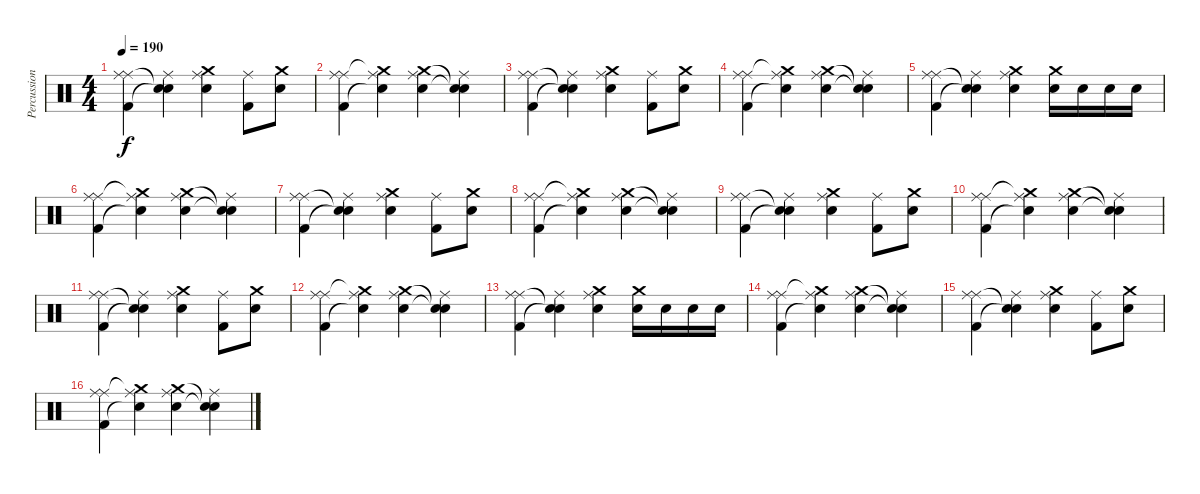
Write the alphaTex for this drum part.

\track ("Percussions" "Percussion") {instrument percussion}
\staff {score}
\articulation defaults
\ts (4 4)
\tempo 190
\clef neutral
\ks c
("Ride (middle)" "Ride (middle)" "Kick (hit) 2").4{dy f} ("Ride (middle)" "Snare (hit)"{t} "Snare (hit)"{t}).4 ("Ride (middle)" "Crash medium (hit)" "Electric Snare (hit)").4 ("Ride (middle)" "Kick (hit) 2").8 ("Crash medium (hit)" "Electric Snare (hit)").8 |
("Ride (middle)" "Ride (middle)" "Kick (hit) 2").4 ("Ride (middle)" "Crash medium (hit)"{t} "Electric Snare (hit)"{t}).4 ("Ride (middle)" "Crash medium (hit)" "Electric Snare (hit)").4 ("Ride (middle)" "Snare (hit)"{t} "Snare (hit)"{t}).4 |
("Ride (middle)" "Ride (middle)" "Kick (hit) 2").4 ("Ride (middle)" "Snare (hit)"{t} "Snare (hit)"{t}).4 ("Ride (middle)" "Crash medium (hit)" "Electric Snare (hit)").4 ("Ride (middle)" "Kick (hit) 2").8 ("Crash medium (hit)" "Electric Snare (hit)").8 |
("Ride (middle)" "Ride (middle)" "Kick (hit) 2").4 ("Ride (middle)" "Crash medium (hit)"{t} "Electric Snare (hit)"{t}).4 ("Ride (middle)" "Crash medium (hit)" "Electric Snare (hit)").4 ("Ride (middle)" "Snare (hit)"{t} "Snare (hit)"{t}).4 |
("Ride (middle)" "Ride (middle)" "Kick (hit) 2").4 ("Ride (middle)" "Snare (hit)"{t} "Snare (hit)"{t}).4 ("Ride (middle)" "Crash medium (hit)" "Electric Snare (hit)").4 ("Crash medium (hit)" "Electric Snare (hit)").16 "Electric Snare (hit)".16 "Electric Snare (hit)".16 "Electric Snare (hit)".16 |
("Ride (middle)" "Ride (middle)" "Kick (hit) 2").4 ("Ride (middle)" "Crash medium (hit)"{t} "Electric Snare (hit)"{t}).4 ("Ride (middle)" "Crash medium (hit)" "Electric Snare (hit)").4 ("Ride (middle)" "Snare (hit)"{t} "Snare (hit)"{t}).4 |
("Ride (middle)" "Ride (middle)" "Kick (hit) 2").4 ("Ride (middle)" "Snare (hit)"{t} "Snare (hit)"{t}).4 ("Ride (middle)" "Crash medium (hit)" "Electric Snare (hit)").4 ("Ride (middle)" "Kick (hit) 2").8 ("Crash medium (hit)" "Electric Snare (hit)").8 |
("Ride (middle)" "Ride (middle)" "Kick (hit) 2").4 ("Ride (middle)" "Crash medium (hit)"{t} "Electric Snare (hit)"{t}).4 ("Ride (middle)" "Crash medium (hit)" "Electric Snare (hit)").4 ("Ride (middle)" "Snare (hit)"{t} "Snare (hit)"{t}).4 |
("Ride (middle)" "Ride (middle)" "Kick (hit) 2").4 ("Ride (middle)" "Snare (hit)"{t} "Snare (hit)"{t}).4 ("Ride (middle)" "Crash medium (hit)" "Electric Snare (hit)").4 ("Ride (middle)" "Kick (hit) 2").8 ("Crash medium (hit)" "Electric Snare (hit)").8 |
("Ride (middle)" "Ride (middle)" "Kick (hit) 2").4 ("Ride (middle)" "Crash medium (hit)"{t} "Electric Snare (hit)"{t}).4 ("Ride (middle)" "Crash medium (hit)" "Electric Snare (hit)").4 ("Ride (middle)" "Snare (hit)"{t} "Snare (hit)"{t}).4 |
("Ride (middle)" "Ride (middle)" "Kick (hit) 2").4 ("Ride (middle)" "Snare (hit)"{t} "Snare (hit)"{t}).4 ("Ride (middle)" "Crash medium (hit)" "Electric Snare (hit)").4 ("Ride (middle)" "Kick (hit) 2").8 ("Crash medium (hit)" "Electric Snare (hit)").8 |
("Ride (middle)" "Ride (middle)" "Kick (hit) 2").4 ("Ride (middle)" "Crash medium (hit)"{t} "Electric Snare (hit)"{t}).4 ("Ride (middle)" "Crash medium (hit)" "Electric Snare (hit)").4 ("Ride (middle)" "Snare (hit)"{t} "Snare (hit)"{t}).4 |
("Ride (middle)" "Ride (middle)" "Kick (hit) 2").4 ("Ride (middle)" "Snare (hit)"{t} "Snare (hit)"{t}).4 ("Ride (middle)" "Crash medium (hit)" "Electric Snare (hit)").4 ("Crash medium (hit)" "Electric Snare (hit)").16 "Electric Snare (hit)".16 "Electric Snare (hit)".16 "Electric Snare (hit)".16 |
("Ride (middle)" "Ride (middle)" "Kick (hit) 2").4 ("Ride (middle)" "Crash medium (hit)"{t} "Electric Snare (hit)"{t}).4 ("Ride (middle)" "Crash medium (hit)" "Electric Snare (hit)").4 ("Ride (middle)" "Snare (hit)"{t} "Snare (hit)"{t}).4 |
("Ride (middle)" "Ride (middle)" "Kick (hit) 2").4 ("Ride (middle)" "Snare (hit)"{t} "Snare (hit)"{t}).4 ("Ride (middle)" "Crash medium (hit)" "Electric Snare (hit)").4 ("Ride (middle)" "Kick (hit) 2").8 ("Crash medium (hit)" "Electric Snare (hit)").8 |
("Ride (middle)" "Ride (middle)" "Kick (hit) 2").4 ("Ride (middle)" "Crash medium (hit)"{t} "Electric Snare (hit)"{t}).4 ("Ride (middle)" "Crash medium (hit)" "Electric Snare (hit)").4 ("Ride (middle)" "Snare (hit)"{t} "Snare (hit)"{t}).4
